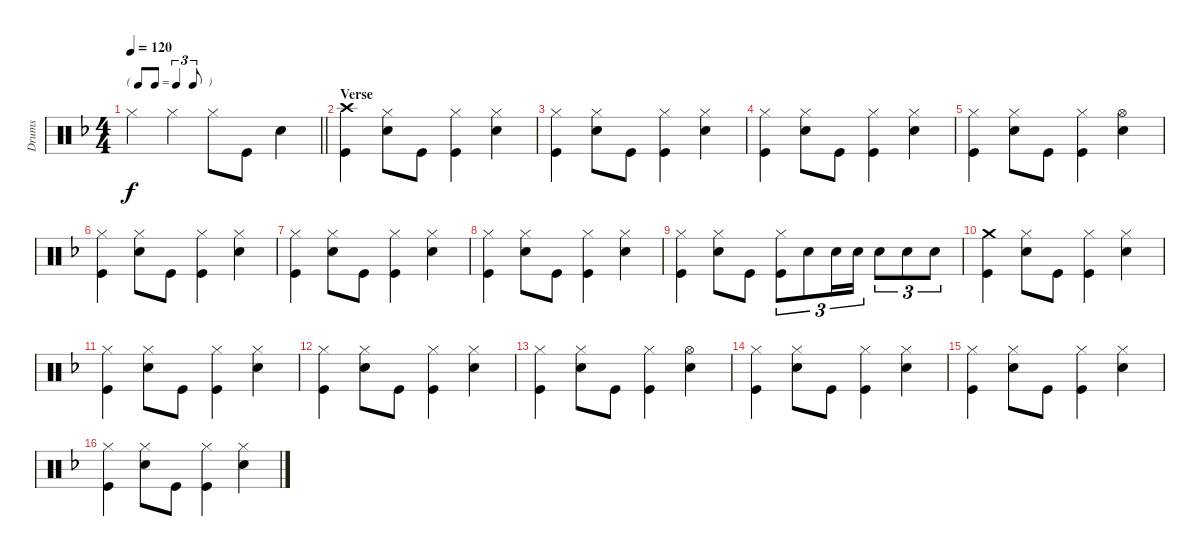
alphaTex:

\track ("Drums" "Drums") {instrument percussion bank 10}
\staff {score}
\articulation defaults
\ts (4 4)
\tf triplet8th
\tempo 120
\clef neutral
\barLineRight lightlight
\ks f "Hi-Hat (closed)".4{dy f} "Hi-Hat (closed)".4 "Hi-Hat (closed)".8 "Kick (hit)".8 "Snare (hit) 2".4
|
\section ("" "Verse")
("Crash high (hit)" "Kick (hit)").4 ("Hi-Hat (closed)" "Snare (hit) 2").8 "Kick (hit)".8 ("Hi-Hat (closed)" "Kick (hit)").4 ("Hi-Hat (closed)" "Snare (hit) 2").4 |
("Hi-Hat (closed)" "Kick (hit)").4 ("Hi-Hat (closed)" "Snare (hit) 2").8 "Kick (hit)".8 ("Hi-Hat (closed)" "Kick (hit)").4 ("Hi-Hat (closed)" "Snare (hit) 2").4 |
("Hi-Hat (closed)" "Kick (hit)").4 ("Hi-Hat (closed)" "Snare (hit) 2").8 "Kick (hit)".8 ("Hi-Hat (closed)" "Kick (hit)").4 ("Hi-Hat (closed)" "Snare (hit) 2").4 |
("Hi-Hat (closed)" "Kick (hit)").4 ("Hi-Hat (closed)" "Snare (hit) 2").8 "Kick (hit)".8 ("Hi-Hat (closed)" "Kick (hit)").4 ("Hi-Hat (open)" "Snare (hit) 2").4 |
("Hi-Hat (closed)" "Kick (hit)").4 ("Hi-Hat (closed)" "Snare (hit) 2").8 "Kick (hit)".8 ("Hi-Hat (closed)" "Kick (hit)").4 ("Hi-Hat (closed)" "Snare (hit) 2").4 |
("Hi-Hat (closed)" "Kick (hit)").4 ("Hi-Hat (closed)" "Snare (hit) 2").8 "Kick (hit)".8 ("Hi-Hat (closed)" "Kick (hit)").4 ("Hi-Hat (closed)" "Snare (hit) 2").4 |
("Hi-Hat (closed)" "Kick (hit)").4 ("Hi-Hat (closed)" "Snare (hit) 2").8 "Kick (hit)".8 ("Hi-Hat (closed)" "Kick (hit)").4 ("Hi-Hat (closed)" "Snare (hit) 2").4 |
("Hi-Hat (closed)" "Kick (hit)").4 ("Hi-Hat (closed)" "Snare (hit) 2").8 "Kick (hit)".8 ("Hi-Hat (closed)" "Kick (hit)").8{tu (3 2)} "Snare (hit) 2".8{tu (3 2)} "Snare (hit) 2".16{tu (3 2)} "Snare (hit) 2".16{tu (3 2)} "Snare (hit) 2".8{tu (3 2)} "Snare (hit) 2".8{tu (3 2)} "Snare (hit) 2".8{tu (3 2)} |
("Crash medium (hit)" "Kick (hit)").4 ("Hi-Hat (closed)" "Snare (hit) 2").8 "Kick (hit)".8 ("Hi-Hat (closed)" "Kick (hit)").4 ("Hi-Hat (closed)" "Snare (hit) 2").4 |
("Hi-Hat (closed)" "Kick (hit)").4 ("Hi-Hat (closed)" "Snare (hit) 2").8 "Kick (hit)".8 ("Hi-Hat (closed)" "Kick (hit)").4 ("Hi-Hat (closed)" "Snare (hit) 2").4 |
("Hi-Hat (closed)" "Kick (hit)").4 ("Hi-Hat (closed)" "Snare (hit) 2").8 "Kick (hit)".8 ("Hi-Hat (closed)" "Kick (hit)").4 ("Hi-Hat (closed)" "Snare (hit) 2").4 |
("Hi-Hat (closed)" "Kick (hit)").4 ("Hi-Hat (closed)" "Snare (hit) 2").8 "Kick (hit)".8 ("Hi-Hat (closed)" "Kick (hit)").4 ("Hi-Hat (open)" "Snare (hit) 2").4 |
("Hi-Hat (closed)" "Kick (hit)").4 ("Hi-Hat (closed)" "Snare (hit) 2").8 "Kick (hit)".8 ("Hi-Hat (closed)" "Kick (hit)").4 ("Hi-Hat (closed)" "Snare (hit) 2").4 |
("Hi-Hat (closed)" "Kick (hit)").4 ("Hi-Hat (closed)" "Snare (hit) 2").8 "Kick (hit)".8 ("Hi-Hat (closed)" "Kick (hit)").4 ("Hi-Hat (closed)" "Snare (hit) 2").4 |
("Hi-Hat (closed)" "Kick (hit)").4 ("Hi-Hat (closed)" "Snare (hit) 2").8 "Kick (hit)".8 ("Hi-Hat (closed)" "Kick (hit)").4 ("Hi-Hat (closed)" "Snare (hit) 2").4
